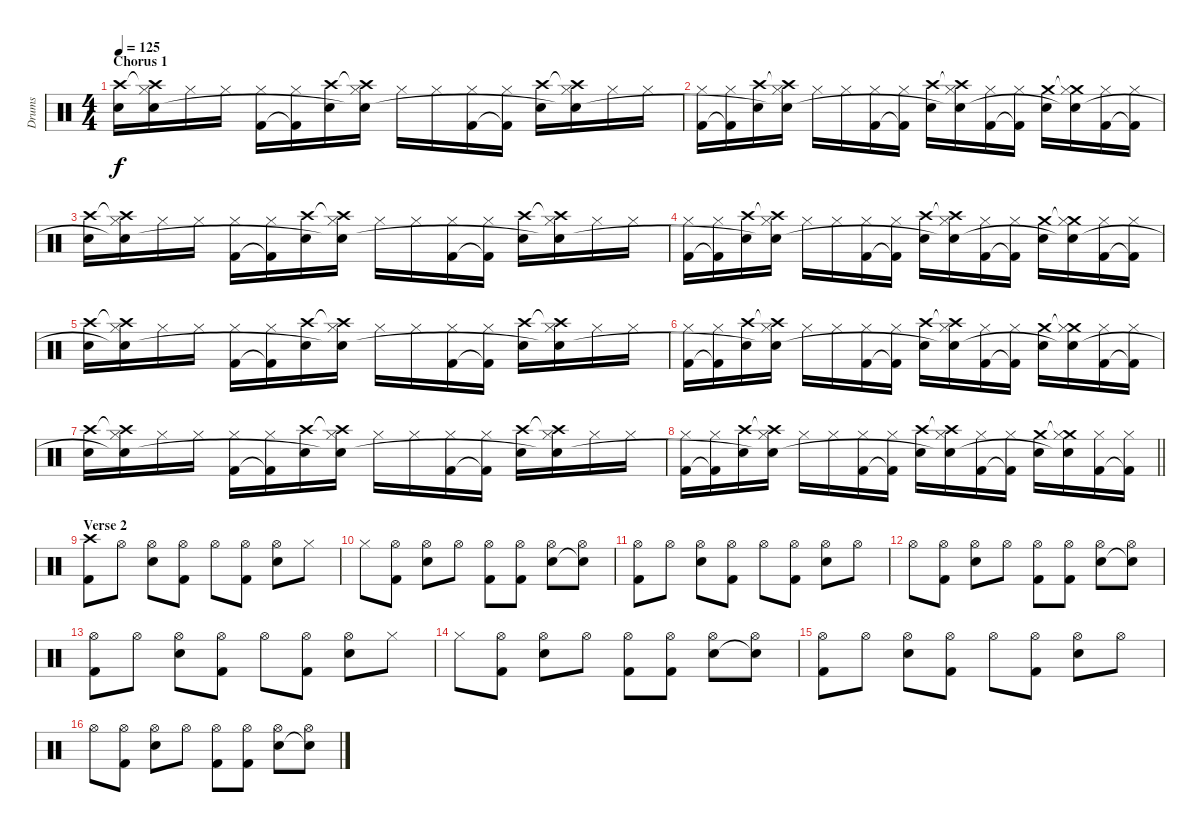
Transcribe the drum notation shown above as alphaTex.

\track ("Drums" "Drums") {instrument percussion}
\staff {score}
\articulation defaults
\ts (4 4)
\section ("" "Chorus 1")
\tempo 125
\clef neutral
\ks c
("Crash high (hit)" "Snare (hit) 2").16{dy f} ("Crash high (hit)"{t} "Hi-Hat (closed)" "Snare (hit) 2"{t}).16 "Hi-Hat (closed)".16 "Hi-Hat (closed)".16 ("Hi-Hat (closed)" "Kick (hit) 2").16 ("Hi-Hat (closed)" "Kick (hit) 2"{t}).16 ("Crash high (hit)" "Snare (hit) 2").16 ("Crash high (hit)"{t} "Hi-Hat (closed)" "Snare (hit) 2"{t}).16 "Hi-Hat (closed)".16 "Hi-Hat (closed)".16 ("Hi-Hat (closed)" "Kick (hit) 2").16 ("Hi-Hat (closed)" "Kick (hit) 2"{t}).16 ("Crash high (hit)" "Snare (hit) 2").16 ("Crash high (hit)"{t} "Hi-Hat (closed)" "Snare (hit) 2"{t}).16 "Hi-Hat (closed)".16 "Hi-Hat (closed)".16 |
("Hi-Hat (closed)" "Kick (hit) 2").16 ("Hi-Hat (closed)" "Kick (hit) 2"{t}).16 ("Crash high (hit)" "Snare (hit) 2").16 ("Crash high (hit)"{t} "Hi-Hat (closed)" "Snare (hit) 2"{t}).16 "Hi-Hat (closed)".16 "Hi-Hat (closed)".16 ("Hi-Hat (closed)" "Kick (hit) 2").16 ("Hi-Hat (closed)" "Kick (hit) 2"{t}).16 ("Crash high (hit)" "Snare (hit) 2").16 ("Crash high (hit)"{t} "Hi-Hat (closed)" "Snare (hit) 2"{t}).16 ("Hi-Hat (closed)" "Kick (hit) 2").16 ("Hi-Hat (closed)" "Kick (hit) 2"{t}).16 ("Crash medium (hit)" "Snare (hit) 2").16 ("Crash medium (hit)"{t} "Hi-Hat (closed)" "Snare (hit) 2"{t}).16 ("Hi-Hat (closed)" "Kick (hit) 2").16 ("Hi-Hat (closed)" "Kick (hit) 2"{t}).16 |
("Crash high (hit)" "Snare (hit) 2").16 ("Crash high (hit)"{t} "Hi-Hat (closed)" "Snare (hit) 2"{t}).16 "Hi-Hat (closed)".16 "Hi-Hat (closed)".16 ("Hi-Hat (closed)" "Kick (hit) 2").16 ("Hi-Hat (closed)" "Kick (hit) 2"{t}).16 ("Crash high (hit)" "Snare (hit) 2").16 ("Crash high (hit)"{t} "Hi-Hat (closed)" "Snare (hit) 2"{t}).16 "Hi-Hat (closed)".16 "Hi-Hat (closed)".16 ("Hi-Hat (closed)" "Kick (hit) 2").16 ("Hi-Hat (closed)" "Kick (hit) 2"{t}).16 ("Crash high (hit)" "Snare (hit) 2").16 ("Crash high (hit)"{t} "Hi-Hat (closed)" "Snare (hit) 2"{t}).16 "Hi-Hat (closed)".16 "Hi-Hat (closed)".16 |
("Hi-Hat (closed)" "Kick (hit) 2").16 ("Hi-Hat (closed)" "Kick (hit) 2"{t}).16 ("Crash high (hit)" "Snare (hit) 2").16 ("Crash high (hit)"{t} "Hi-Hat (closed)" "Snare (hit) 2"{t}).16 "Hi-Hat (closed)".16 "Hi-Hat (closed)".16 ("Hi-Hat (closed)" "Kick (hit) 2").16 ("Hi-Hat (closed)" "Kick (hit) 2"{t}).16 ("Crash high (hit)" "Snare (hit) 2").16 ("Crash high (hit)"{t} "Hi-Hat (closed)" "Snare (hit) 2"{t}).16 ("Hi-Hat (closed)" "Kick (hit) 2").16 ("Hi-Hat (closed)" "Kick (hit) 2"{t}).16 ("Crash medium (hit)" "Snare (hit) 2").16 ("Crash medium (hit)"{t} "Hi-Hat (closed)" "Snare (hit) 2"{t}).16 ("Hi-Hat (closed)" "Kick (hit) 2").16 ("Hi-Hat (closed)" "Kick (hit) 2"{t}).16 |
("Crash high (hit)" "Snare (hit) 2").16 ("Crash high (hit)"{t} "Hi-Hat (closed)" "Snare (hit) 2"{t}).16 "Hi-Hat (closed)".16 "Hi-Hat (closed)".16 ("Hi-Hat (closed)" "Kick (hit) 2").16 ("Hi-Hat (closed)" "Kick (hit) 2"{t}).16 ("Crash high (hit)" "Snare (hit) 2").16 ("Crash high (hit)"{t} "Hi-Hat (closed)" "Snare (hit) 2"{t}).16 "Hi-Hat (closed)".16 "Hi-Hat (closed)".16 ("Hi-Hat (closed)" "Kick (hit) 2").16 ("Hi-Hat (closed)" "Kick (hit) 2"{t}).16 ("Crash high (hit)" "Snare (hit) 2").16 ("Crash high (hit)"{t} "Hi-Hat (closed)" "Snare (hit) 2"{t}).16 "Hi-Hat (closed)".16 "Hi-Hat (closed)".16 |
("Hi-Hat (closed)" "Kick (hit) 2").16 ("Hi-Hat (closed)" "Kick (hit) 2"{t}).16 ("Crash high (hit)" "Snare (hit) 2").16 ("Crash high (hit)"{t} "Hi-Hat (closed)" "Snare (hit) 2"{t}).16 "Hi-Hat (closed)".16 "Hi-Hat (closed)".16 ("Hi-Hat (closed)" "Kick (hit) 2").16 ("Hi-Hat (closed)" "Kick (hit) 2"{t}).16 ("Crash high (hit)" "Snare (hit) 2").16 ("Crash high (hit)"{t} "Hi-Hat (closed)" "Snare (hit) 2"{t}).16 ("Hi-Hat (closed)" "Kick (hit) 2").16 ("Hi-Hat (closed)" "Kick (hit) 2"{t}).16 ("Crash medium (hit)" "Snare (hit) 2").16 ("Crash medium (hit)"{t} "Hi-Hat (closed)" "Snare (hit) 2"{t}).16 ("Hi-Hat (closed)" "Kick (hit) 2").16 ("Hi-Hat (closed)" "Kick (hit) 2"{t}).16 |
("Crash high (hit)" "Snare (hit) 2").16 ("Crash high (hit)"{t} "Hi-Hat (closed)" "Snare (hit) 2"{t}).16 "Hi-Hat (closed)".16 "Hi-Hat (closed)".16 ("Hi-Hat (closed)" "Kick (hit) 2").16 ("Hi-Hat (closed)" "Kick (hit) 2"{t}).16 ("Crash high (hit)" "Snare (hit) 2").16 ("Crash high (hit)"{t} "Hi-Hat (closed)" "Snare (hit) 2"{t}).16 "Hi-Hat (closed)".16 "Hi-Hat (closed)".16 ("Hi-Hat (closed)" "Kick (hit) 2").16 ("Hi-Hat (closed)" "Kick (hit) 2"{t}).16 ("Crash high (hit)" "Snare (hit) 2").16 ("Crash high (hit)"{t} "Hi-Hat (closed)" "Snare (hit) 2"{t}).16 "Hi-Hat (closed)".16 "Hi-Hat (closed)".16 |
\barLineRight lightlight
("Hi-Hat (closed)" "Kick (hit) 2").16 ("Hi-Hat (closed)" "Kick (hit) 2"{t}).16 ("Crash high (hit)" "Snare (hit) 2").16 ("Crash high (hit)"{t} "Hi-Hat (closed)" "Snare (hit) 2"{t}).16 "Hi-Hat (closed)".16 "Hi-Hat (closed)".16 ("Hi-Hat (closed)" "Kick (hit) 2").16 ("Hi-Hat (closed)" "Kick (hit) 2"{t}).16 ("Crash high (hit)" "Snare (hit) 2").16 ("Crash high (hit)"{t} "Hi-Hat (closed)" "Snare (hit) 2"{t}).16 ("Hi-Hat (closed)" "Kick (hit) 2").16 ("Hi-Hat (closed)" "Kick (hit) 2"{t}).16 ("Crash medium (hit)" "Snare (hit) 2").16 ("Crash medium (hit)"{t} "Hi-Hat (closed)" "Snare (hit) 2"{t}).16 ("Hi-Hat (closed)" "Kick (hit) 2").16 ("Hi-Hat (closed)" "Kick (hit) 2"{t}).16 |
\section ("" "Verse 2")
("Crash high (hit)" "Kick (hit) 2").8 "Hi-Hat (open)".8 ("Hi-Hat (open)" "Snare (hit) 2").8 ("Hi-Hat (open)" "Kick (hit) 2").8 "Hi-Hat (open)".8 ("Hi-Hat (open)" "Kick (hit) 2").8 ("Hi-Hat (open)" "Snare (hit) 2").8 "Hi-Hat (closed)".8 |
"Hi-Hat (closed)".8 ("Hi-Hat (open)" "Kick (hit) 2").8 ("Hi-Hat (open)" "Snare (hit) 2").8 "Hi-Hat (open)".8 ("Hi-Hat (open)" "Kick (hit) 2").8 ("Hi-Hat (open)" "Kick (hit) 2").8 ("Hi-Hat (open)" "Snare (hit) 2").8 ("Hi-Hat (open)" "Snare (hit) 2"{t}).8 |
("Hi-Hat (open)" "Kick (hit) 2").8 "Hi-Hat (open)".8 ("Hi-Hat (open)" "Snare (hit) 2").8 ("Hi-Hat (open)" "Kick (hit) 2").8 "Hi-Hat (open)".8 ("Hi-Hat (open)" "Kick (hit) 2").8 ("Hi-Hat (open)" "Snare (hit) 2").8 "Hi-Hat (open)".8 |
"Hi-Hat (open)".8 ("Hi-Hat (open)" "Kick (hit) 2").8 ("Hi-Hat (open)" "Snare (hit) 2").8 "Hi-Hat (open)".8 ("Hi-Hat (open)" "Kick (hit) 2").8 ("Hi-Hat (open)" "Kick (hit) 2").8 ("Hi-Hat (open)" "Snare (hit) 2").8 ("Hi-Hat (open)" "Snare (hit) 2"{t}).8 |
("Hi-Hat (open)" "Kick (hit) 2").8 "Hi-Hat (open)".8 ("Hi-Hat (open)" "Snare (hit) 2").8 ("Hi-Hat (open)" "Kick (hit) 2").8 "Hi-Hat (open)".8 ("Hi-Hat (open)" "Kick (hit) 2").8 ("Hi-Hat (open)" "Snare (hit) 2").8 "Hi-Hat (closed)".8 |
"Hi-Hat (closed)".8 ("Hi-Hat (open)" "Kick (hit) 2").8 ("Hi-Hat (open)" "Snare (hit) 2").8 "Hi-Hat (open)".8 ("Hi-Hat (open)" "Kick (hit) 2").8 ("Hi-Hat (open)" "Kick (hit) 2").8 ("Hi-Hat (open)" "Snare (hit) 2").8 ("Hi-Hat (open)" "Snare (hit) 2"{t}).8 |
("Hi-Hat (open)" "Kick (hit) 2").8 "Hi-Hat (open)".8 ("Hi-Hat (open)" "Snare (hit) 2").8 ("Hi-Hat (open)" "Kick (hit) 2").8 "Hi-Hat (open)".8 ("Hi-Hat (open)" "Kick (hit) 2").8 ("Hi-Hat (open)" "Snare (hit) 2").8 "Hi-Hat (open)".8 |
"Hi-Hat (open)".8 ("Hi-Hat (open)" "Kick (hit) 2").8 ("Hi-Hat (open)" "Snare (hit) 2").8 "Hi-Hat (open)".8 ("Hi-Hat (open)" "Kick (hit) 2").8 ("Hi-Hat (open)" "Kick (hit) 2").8 ("Hi-Hat (open)" "Snare (hit) 2").8 ("Hi-Hat (open)" "Snare (hit) 2"{t}).8
